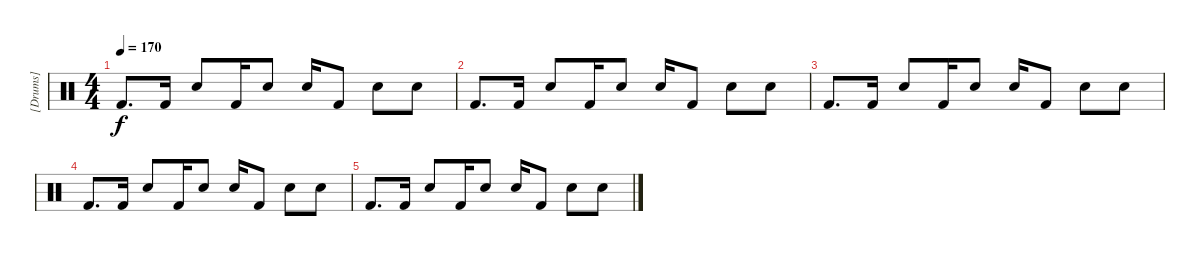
\track ("[Drums]" "[Drums]") {instrument percussion}
\staff {score}
\articulation defaults
\ts (4 4)
\tempo 170
\clef neutral
\ks c "Kick (hit) 2".8{d dy f} "Kick (hit) 2".16 "Snare (hit) 2".8 "Kick (hit) 2".16 "Snare (hit) 2".8 "Snare (hit) 2".16 "Kick (hit) 2".8 "Snare (hit) 2".8 "Snare (hit) 2".8
|
"Kick (hit) 2".8{d} "Kick (hit) 2".16 "Snare (hit) 2".8 "Kick (hit) 2".16 "Snare (hit) 2".8 "Snare (hit) 2".16 "Kick (hit) 2".8 "Snare (hit) 2".8 "Snare (hit) 2".8 |
"Kick (hit) 2".8{d} "Kick (hit) 2".16 "Snare (hit) 2".8 "Kick (hit) 2".16 "Snare (hit) 2".8 "Snare (hit) 2".16 "Kick (hit) 2".8 "Snare (hit) 2".8 "Snare (hit) 2".8 |
"Kick (hit) 2".8{d} "Kick (hit) 2".16 "Snare (hit) 2".8 "Kick (hit) 2".16 "Snare (hit) 2".8 "Snare (hit) 2".16 "Kick (hit) 2".8 "Snare (hit) 2".8 "Snare (hit) 2".8 |
"Kick (hit) 2".8{d} "Kick (hit) 2".16 "Snare (hit) 2".8 "Kick (hit) 2".16 "Snare (hit) 2".8 "Snare (hit) 2".16 "Kick (hit) 2".8 "Snare (hit) 2".8 "Snare (hit) 2".8
